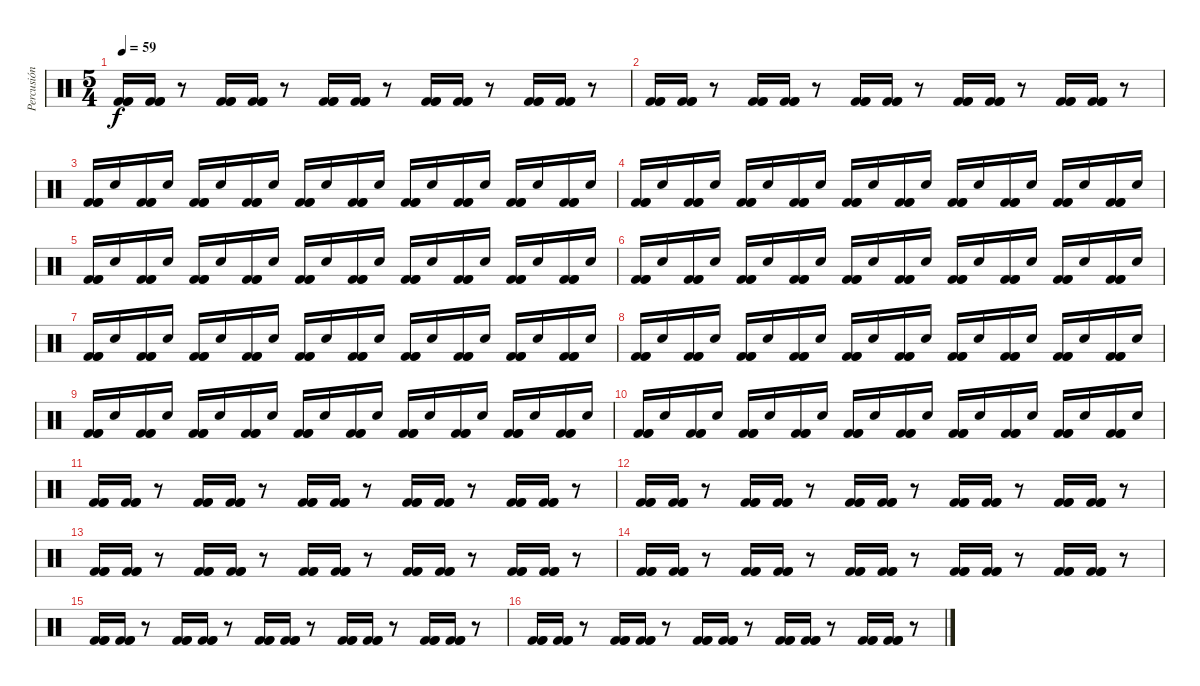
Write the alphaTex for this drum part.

\track ("Percusión" "Percusión") {instrument percussion}
\staff {score}
\articulation defaults
\ts (5 4)
\tempo 59
\clef neutral
\ks c
("Kick (hit) 2" "Kick (hit) 2" "Kick (hit) 2").16{dy f} ("Kick (hit) 2" "Kick (hit) 2" "Kick (hit) 2").16 r.8 ("Kick (hit) 2" "Kick (hit) 2" "Kick (hit) 2").16 ("Kick (hit) 2" "Kick (hit) 2" "Kick (hit) 2").16 r.8 ("Kick (hit) 2" "Kick (hit) 2" "Kick (hit) 2").16 ("Kick (hit) 2" "Kick (hit) 2" "Kick (hit) 2").16 r.8 ("Kick (hit) 2" "Kick (hit) 2" "Kick (hit) 2").16 ("Kick (hit) 2" "Kick (hit) 2" "Kick (hit) 2").16 r.8 ("Kick (hit) 2" "Kick (hit) 2" "Kick (hit) 2").16 ("Kick (hit) 2" "Kick (hit) 2" "Kick (hit) 2").16 r.8 |
("Kick (hit) 2" "Kick (hit) 2" "Kick (hit) 2").16 ("Kick (hit) 2" "Kick (hit) 2" "Kick (hit) 2").16 r.8 ("Kick (hit) 2" "Kick (hit) 2" "Kick (hit) 2").16 ("Kick (hit) 2" "Kick (hit) 2" "Kick (hit) 2").16 r.8 ("Kick (hit) 2" "Kick (hit) 2" "Kick (hit) 2").16 ("Kick (hit) 2" "Kick (hit) 2" "Kick (hit) 2").16 r.8 ("Kick (hit) 2" "Kick (hit) 2" "Kick (hit) 2").16 ("Kick (hit) 2" "Kick (hit) 2" "Kick (hit) 2").16 r.8 ("Kick (hit) 2" "Kick (hit) 2" "Kick (hit) 2").16 ("Kick (hit) 2" "Kick (hit) 2" "Kick (hit) 2").16 r.8 |
("Kick (hit) 2" "Kick (hit) 2" "Kick (hit) 2").16 "Snare (hit) 2".16 ("Kick (hit) 2" "Kick (hit) 2" "Kick (hit) 2").16 "Snare (hit) 2".16 ("Kick (hit) 2" "Kick (hit) 2" "Kick (hit) 2").16 "Snare (hit) 2".16 ("Kick (hit) 2" "Kick (hit) 2" "Kick (hit) 2").16 "Snare (hit) 2".16 ("Kick (hit) 2" "Kick (hit) 2" "Kick (hit) 2").16 "Snare (hit) 2".16 ("Kick (hit) 2" "Kick (hit) 2" "Kick (hit) 2").16 "Snare (hit) 2".16 ("Kick (hit) 2" "Kick (hit) 2" "Kick (hit) 2").16 "Snare (hit) 2".16 ("Kick (hit) 2" "Kick (hit) 2" "Kick (hit) 2").16 "Snare (hit) 2".16 ("Kick (hit) 2" "Kick (hit) 2" "Kick (hit) 2").16 "Snare (hit) 2".16 ("Kick (hit) 2" "Kick (hit) 2" "Kick (hit) 2").16 "Snare (hit) 2".16 |
("Kick (hit) 2" "Kick (hit) 2" "Kick (hit) 2").16 "Snare (hit) 2".16 ("Kick (hit) 2" "Kick (hit) 2" "Kick (hit) 2").16 "Snare (hit) 2".16 ("Kick (hit) 2" "Kick (hit) 2" "Kick (hit) 2").16 "Snare (hit) 2".16 ("Kick (hit) 2" "Kick (hit) 2" "Kick (hit) 2").16 "Snare (hit) 2".16 ("Kick (hit) 2" "Kick (hit) 2" "Kick (hit) 2").16 "Snare (hit) 2".16 ("Kick (hit) 2" "Kick (hit) 2" "Kick (hit) 2").16 "Snare (hit) 2".16 ("Kick (hit) 2" "Kick (hit) 2" "Kick (hit) 2").16 "Snare (hit) 2".16 ("Kick (hit) 2" "Kick (hit) 2" "Kick (hit) 2").16 "Snare (hit) 2".16 ("Kick (hit) 2" "Kick (hit) 2" "Kick (hit) 2").16 "Snare (hit) 2".16 ("Kick (hit) 2" "Kick (hit) 2" "Kick (hit) 2").16 "Snare (hit) 2".16 |
("Kick (hit) 2" "Kick (hit) 2" "Kick (hit) 2").16 "Snare (hit) 2".16 ("Kick (hit) 2" "Kick (hit) 2" "Kick (hit) 2").16 "Snare (hit) 2".16 ("Kick (hit) 2" "Kick (hit) 2" "Kick (hit) 2").16 "Snare (hit) 2".16 ("Kick (hit) 2" "Kick (hit) 2" "Kick (hit) 2").16 "Snare (hit) 2".16 ("Kick (hit) 2" "Kick (hit) 2" "Kick (hit) 2").16 "Snare (hit) 2".16 ("Kick (hit) 2" "Kick (hit) 2" "Kick (hit) 2").16 "Snare (hit) 2".16 ("Kick (hit) 2" "Kick (hit) 2" "Kick (hit) 2").16 "Snare (hit) 2".16 ("Kick (hit) 2" "Kick (hit) 2" "Kick (hit) 2").16 "Snare (hit) 2".16 ("Kick (hit) 2" "Kick (hit) 2" "Kick (hit) 2").16 "Snare (hit) 2".16 ("Kick (hit) 2" "Kick (hit) 2" "Kick (hit) 2").16 "Snare (hit) 2".16 |
("Kick (hit) 2" "Kick (hit) 2" "Kick (hit) 2").16 "Snare (hit) 2".16 ("Kick (hit) 2" "Kick (hit) 2" "Kick (hit) 2").16 "Snare (hit) 2".16 ("Kick (hit) 2" "Kick (hit) 2" "Kick (hit) 2").16 "Snare (hit) 2".16 ("Kick (hit) 2" "Kick (hit) 2" "Kick (hit) 2").16 "Snare (hit) 2".16 ("Kick (hit) 2" "Kick (hit) 2" "Kick (hit) 2").16 "Snare (hit) 2".16 ("Kick (hit) 2" "Kick (hit) 2" "Kick (hit) 2").16 "Snare (hit) 2".16 ("Kick (hit) 2" "Kick (hit) 2" "Kick (hit) 2").16 "Snare (hit) 2".16 ("Kick (hit) 2" "Kick (hit) 2" "Kick (hit) 2").16 "Snare (hit) 2".16 ("Kick (hit) 2" "Kick (hit) 2" "Kick (hit) 2").16 "Snare (hit) 2".16 ("Kick (hit) 2" "Kick (hit) 2" "Kick (hit) 2").16 "Snare (hit) 2".16 |
("Kick (hit) 2" "Kick (hit) 2" "Kick (hit) 2").16 "Snare (hit) 2".16 ("Kick (hit) 2" "Kick (hit) 2" "Kick (hit) 2").16 "Snare (hit) 2".16 ("Kick (hit) 2" "Kick (hit) 2" "Kick (hit) 2").16 "Snare (hit) 2".16 ("Kick (hit) 2" "Kick (hit) 2" "Kick (hit) 2").16 "Snare (hit) 2".16 ("Kick (hit) 2" "Kick (hit) 2" "Kick (hit) 2").16 "Snare (hit) 2".16 ("Kick (hit) 2" "Kick (hit) 2" "Kick (hit) 2").16 "Snare (hit) 2".16 ("Kick (hit) 2" "Kick (hit) 2" "Kick (hit) 2").16 "Snare (hit) 2".16 ("Kick (hit) 2" "Kick (hit) 2" "Kick (hit) 2").16 "Snare (hit) 2".16 ("Kick (hit) 2" "Kick (hit) 2" "Kick (hit) 2").16 "Snare (hit) 2".16 ("Kick (hit) 2" "Kick (hit) 2" "Kick (hit) 2").16 "Snare (hit) 2".16 |
("Kick (hit) 2" "Kick (hit) 2" "Kick (hit) 2").16 "Snare (hit) 2".16 ("Kick (hit) 2" "Kick (hit) 2" "Kick (hit) 2").16 "Snare (hit) 2".16 ("Kick (hit) 2" "Kick (hit) 2" "Kick (hit) 2").16 "Snare (hit) 2".16 ("Kick (hit) 2" "Kick (hit) 2" "Kick (hit) 2").16 "Snare (hit) 2".16 ("Kick (hit) 2" "Kick (hit) 2" "Kick (hit) 2").16 "Snare (hit) 2".16 ("Kick (hit) 2" "Kick (hit) 2" "Kick (hit) 2").16 "Snare (hit) 2".16 ("Kick (hit) 2" "Kick (hit) 2" "Kick (hit) 2").16 "Snare (hit) 2".16 ("Kick (hit) 2" "Kick (hit) 2" "Kick (hit) 2").16 "Snare (hit) 2".16 ("Kick (hit) 2" "Kick (hit) 2" "Kick (hit) 2").16 "Snare (hit) 2".16 ("Kick (hit) 2" "Kick (hit) 2" "Kick (hit) 2").16 "Snare (hit) 2".16 |
("Kick (hit) 2" "Kick (hit) 2" "Kick (hit) 2").16 "Snare (hit) 2".16 ("Kick (hit) 2" "Kick (hit) 2" "Kick (hit) 2").16 "Snare (hit) 2".16 ("Kick (hit) 2" "Kick (hit) 2" "Kick (hit) 2").16 "Snare (hit) 2".16 ("Kick (hit) 2" "Kick (hit) 2" "Kick (hit) 2").16 "Snare (hit) 2".16 ("Kick (hit) 2" "Kick (hit) 2" "Kick (hit) 2").16 "Snare (hit) 2".16 ("Kick (hit) 2" "Kick (hit) 2" "Kick (hit) 2").16 "Snare (hit) 2".16 ("Kick (hit) 2" "Kick (hit) 2" "Kick (hit) 2").16 "Snare (hit) 2".16 ("Kick (hit) 2" "Kick (hit) 2" "Kick (hit) 2").16 "Snare (hit) 2".16 ("Kick (hit) 2" "Kick (hit) 2" "Kick (hit) 2").16 "Snare (hit) 2".16 ("Kick (hit) 2" "Kick (hit) 2" "Kick (hit) 2").16 "Snare (hit) 2".16 |
("Kick (hit) 2" "Kick (hit) 2" "Kick (hit) 2").16 "Snare (hit) 2".16 ("Kick (hit) 2" "Kick (hit) 2" "Kick (hit) 2").16 "Snare (hit) 2".16 ("Kick (hit) 2" "Kick (hit) 2" "Kick (hit) 2").16 "Snare (hit) 2".16 ("Kick (hit) 2" "Kick (hit) 2" "Kick (hit) 2").16 "Snare (hit) 2".16 ("Kick (hit) 2" "Kick (hit) 2" "Kick (hit) 2").16 "Snare (hit) 2".16 ("Kick (hit) 2" "Kick (hit) 2" "Kick (hit) 2").16 "Snare (hit) 2".16 ("Kick (hit) 2" "Kick (hit) 2" "Kick (hit) 2").16 "Snare (hit) 2".16 ("Kick (hit) 2" "Kick (hit) 2" "Kick (hit) 2").16 "Snare (hit) 2".16 ("Kick (hit) 2" "Kick (hit) 2" "Kick (hit) 2").16 "Snare (hit) 2".16 ("Kick (hit) 2" "Kick (hit) 2" "Kick (hit) 2").16 "Snare (hit) 2".16 |
("Kick (hit) 2" "Kick (hit) 2" "Kick (hit) 2").16 ("Kick (hit) 2" "Kick (hit) 2" "Kick (hit) 2").16 r.8 ("Kick (hit) 2" "Kick (hit) 2" "Kick (hit) 2").16 ("Kick (hit) 2" "Kick (hit) 2" "Kick (hit) 2").16 r.8 ("Kick (hit) 2" "Kick (hit) 2" "Kick (hit) 2").16 ("Kick (hit) 2" "Kick (hit) 2" "Kick (hit) 2").16 r.8 ("Kick (hit) 2" "Kick (hit) 2" "Kick (hit) 2").16 ("Kick (hit) 2" "Kick (hit) 2" "Kick (hit) 2").16 r.8 ("Kick (hit) 2" "Kick (hit) 2" "Kick (hit) 2").16 ("Kick (hit) 2" "Kick (hit) 2" "Kick (hit) 2").16 r.8 |
("Kick (hit) 2" "Kick (hit) 2" "Kick (hit) 2").16 ("Kick (hit) 2" "Kick (hit) 2" "Kick (hit) 2").16 r.8 ("Kick (hit) 2" "Kick (hit) 2" "Kick (hit) 2").16 ("Kick (hit) 2" "Kick (hit) 2" "Kick (hit) 2").16 r.8 ("Kick (hit) 2" "Kick (hit) 2" "Kick (hit) 2").16 ("Kick (hit) 2" "Kick (hit) 2" "Kick (hit) 2").16 r.8 ("Kick (hit) 2" "Kick (hit) 2" "Kick (hit) 2").16 ("Kick (hit) 2" "Kick (hit) 2" "Kick (hit) 2").16 r.8 ("Kick (hit) 2" "Kick (hit) 2" "Kick (hit) 2").16 ("Kick (hit) 2" "Kick (hit) 2" "Kick (hit) 2").16 r.8 |
("Kick (hit) 2" "Kick (hit) 2" "Kick (hit) 2").16 ("Kick (hit) 2" "Kick (hit) 2" "Kick (hit) 2").16 r.8 ("Kick (hit) 2" "Kick (hit) 2" "Kick (hit) 2").16 ("Kick (hit) 2" "Kick (hit) 2" "Kick (hit) 2").16 r.8 ("Kick (hit) 2" "Kick (hit) 2" "Kick (hit) 2").16 ("Kick (hit) 2" "Kick (hit) 2" "Kick (hit) 2").16 r.8 ("Kick (hit) 2" "Kick (hit) 2" "Kick (hit) 2").16 ("Kick (hit) 2" "Kick (hit) 2" "Kick (hit) 2").16 r.8 ("Kick (hit) 2" "Kick (hit) 2" "Kick (hit) 2").16 ("Kick (hit) 2" "Kick (hit) 2" "Kick (hit) 2").16 r.8 |
("Kick (hit) 2" "Kick (hit) 2" "Kick (hit) 2").16 ("Kick (hit) 2" "Kick (hit) 2" "Kick (hit) 2").16 r.8 ("Kick (hit) 2" "Kick (hit) 2" "Kick (hit) 2").16 ("Kick (hit) 2" "Kick (hit) 2" "Kick (hit) 2").16 r.8 ("Kick (hit) 2" "Kick (hit) 2" "Kick (hit) 2").16 ("Kick (hit) 2" "Kick (hit) 2" "Kick (hit) 2").16 r.8 ("Kick (hit) 2" "Kick (hit) 2" "Kick (hit) 2").16 ("Kick (hit) 2" "Kick (hit) 2" "Kick (hit) 2").16 r.8 ("Kick (hit) 2" "Kick (hit) 2" "Kick (hit) 2").16 ("Kick (hit) 2" "Kick (hit) 2" "Kick (hit) 2").16 r.8 |
("Kick (hit) 2" "Kick (hit) 2" "Kick (hit) 2").16 ("Kick (hit) 2" "Kick (hit) 2" "Kick (hit) 2").16 r.8 ("Kick (hit) 2" "Kick (hit) 2" "Kick (hit) 2").16 ("Kick (hit) 2" "Kick (hit) 2" "Kick (hit) 2").16 r.8 ("Kick (hit) 2" "Kick (hit) 2" "Kick (hit) 2").16 ("Kick (hit) 2" "Kick (hit) 2" "Kick (hit) 2").16 r.8 ("Kick (hit) 2" "Kick (hit) 2" "Kick (hit) 2").16 ("Kick (hit) 2" "Kick (hit) 2" "Kick (hit) 2").16 r.8 ("Kick (hit) 2" "Kick (hit) 2" "Kick (hit) 2").16 ("Kick (hit) 2" "Kick (hit) 2" "Kick (hit) 2").16 r.8 |
("Kick (hit) 2" "Kick (hit) 2" "Kick (hit) 2").16 ("Kick (hit) 2" "Kick (hit) 2" "Kick (hit) 2").16 r.8 ("Kick (hit) 2" "Kick (hit) 2" "Kick (hit) 2").16 ("Kick (hit) 2" "Kick (hit) 2" "Kick (hit) 2").16 r.8 ("Kick (hit) 2" "Kick (hit) 2" "Kick (hit) 2").16 ("Kick (hit) 2" "Kick (hit) 2" "Kick (hit) 2").16 r.8 ("Kick (hit) 2" "Kick (hit) 2" "Kick (hit) 2").16 ("Kick (hit) 2" "Kick (hit) 2" "Kick (hit) 2").16 r.8 ("Kick (hit) 2" "Kick (hit) 2" "Kick (hit) 2").16 ("Kick (hit) 2" "Kick (hit) 2" "Kick (hit) 2").16 r.8
